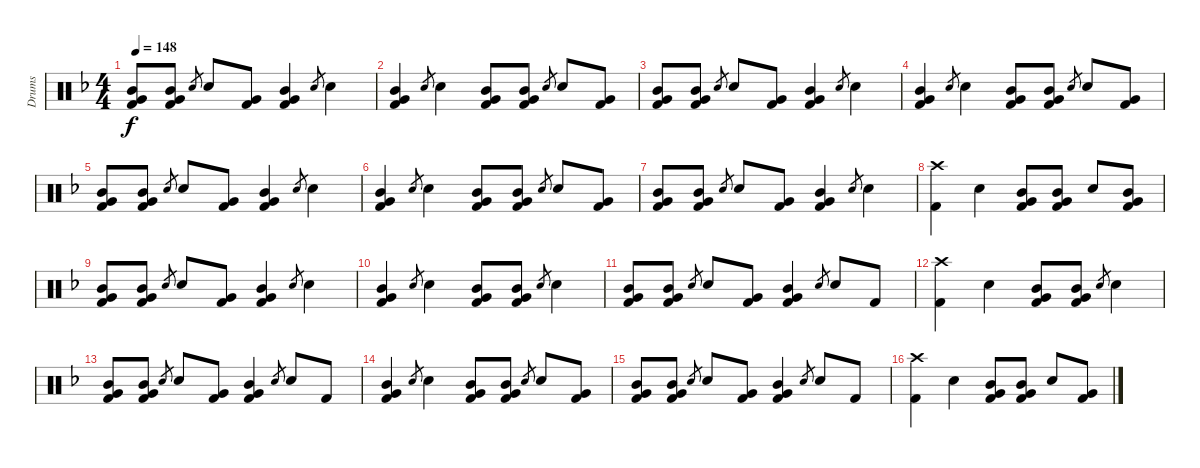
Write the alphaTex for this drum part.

\track ("Drums" "Drums") {instrument percussion}
\staff {score}
\articulation defaults
\ts (4 4)
\tempo 148
\clef neutral
\ks f
("Mid Tom (hit)" "Very Low Tom (hit)" "Kick (hit) 2").8{dy f} ("Mid Tom (hit)" "Very Low Tom (hit)" "Kick (hit) 2").8 "Snare (hit) 2".8{gr} "Snare (hit) 2".8 ("Very Low Tom (hit)" "Kick (hit) 2").8 ("Mid Tom (hit)" "Very Low Tom (hit)" "Kick (hit) 2").4 "Snare (hit) 2".8{gr} "Snare (hit) 2".4 |
("Mid Tom (hit)" "Very Low Tom (hit)" "Kick (hit) 2").4 "Snare (hit) 2".8{gr} "Snare (hit) 2".4 ("Mid Tom (hit)" "Very Low Tom (hit)" "Kick (hit) 2").8 ("Mid Tom (hit)" "Very Low Tom (hit)" "Kick (hit) 2").8 "Snare (hit) 2".8{gr} "Snare (hit) 2".8 ("Very Low Tom (hit)" "Kick (hit) 2").8 |
("Mid Tom (hit)" "Very Low Tom (hit)" "Kick (hit) 2").8 ("Mid Tom (hit)" "Very Low Tom (hit)" "Kick (hit) 2").8 "Snare (hit) 2".8{gr} "Snare (hit) 2".8 ("Very Low Tom (hit)" "Kick (hit) 2").8 ("Mid Tom (hit)" "Very Low Tom (hit)" "Kick (hit) 2").4 "Snare (hit) 2".8{gr} "Snare (hit) 2".4 |
("Mid Tom (hit)" "Very Low Tom (hit)" "Kick (hit) 2").4 "Snare (hit) 2".8{gr} "Snare (hit) 2".4 ("Mid Tom (hit)" "Very Low Tom (hit)" "Kick (hit) 2").8 ("Mid Tom (hit)" "Very Low Tom (hit)" "Kick (hit) 2").8 "Snare (hit) 2".8{gr} "Snare (hit) 2".8 ("Very Low Tom (hit)" "Kick (hit) 2").8 |
("Mid Tom (hit)" "Very Low Tom (hit)" "Kick (hit) 2").8 ("Mid Tom (hit)" "Very Low Tom (hit)" "Kick (hit) 2").8 "Snare (hit) 2".8{gr} "Snare (hit) 2".8 ("Very Low Tom (hit)" "Kick (hit) 2").8 ("Mid Tom (hit)" "Very Low Tom (hit)" "Kick (hit) 2").4 "Snare (hit) 2".8{gr} "Snare (hit) 2".4 |
("Mid Tom (hit)" "Very Low Tom (hit)" "Kick (hit) 2").4 "Snare (hit) 2".8{gr} "Snare (hit) 2".4 ("Mid Tom (hit)" "Very Low Tom (hit)" "Kick (hit) 2").8 ("Mid Tom (hit)" "Very Low Tom (hit)" "Kick (hit) 2").8 "Snare (hit) 2".8{gr} "Snare (hit) 2".8 ("Very Low Tom (hit)" "Kick (hit) 2").8 |
("Mid Tom (hit)" "Very Low Tom (hit)" "Kick (hit) 2").8 ("Mid Tom (hit)" "Very Low Tom (hit)" "Kick (hit) 2").8 "Snare (hit) 2".8{gr} "Snare (hit) 2".8 ("Very Low Tom (hit)" "Kick (hit) 2").8 ("Mid Tom (hit)" "Very Low Tom (hit)" "Kick (hit) 2").4 "Snare (hit) 2".8{gr} "Snare (hit) 2".4 |
("Crash high (hit)" "Kick (hit) 2").4 "Snare (hit) 2".4 ("Mid Tom (hit)" "Very Low Tom (hit)" "Kick (hit) 2").8 ("Mid Tom (hit)" "Very Low Tom (hit)" "Kick (hit) 2").8 "Snare (hit) 2".8 ("Mid Tom (hit)" "Very Low Tom (hit)" "Kick (hit) 2").8 |
("Mid Tom (hit)" "Very Low Tom (hit)" "Kick (hit) 2").8 ("Mid Tom (hit)" "Very Low Tom (hit)" "Kick (hit) 2").8 "Snare (hit) 2".8{gr} "Snare (hit) 2".8 ("Very Low Tom (hit)" "Kick (hit) 2").8 ("Mid Tom (hit)" "Very Low Tom (hit)" "Kick (hit) 2").4 "Snare (hit) 2".8{gr} "Snare (hit) 2".4 |
("Mid Tom (hit)" "Very Low Tom (hit)" "Kick (hit) 2").4 "Snare (hit) 2".8{gr} "Snare (hit) 2".4 ("Mid Tom (hit)" "Very Low Tom (hit)" "Kick (hit) 2").8 ("Mid Tom (hit)" "Very Low Tom (hit)" "Kick (hit) 2").8 "Snare (hit) 2".8{gr} "Snare (hit) 2".4 |
("Mid Tom (hit)" "Very Low Tom (hit)" "Kick (hit) 2").8 ("Mid Tom (hit)" "Very Low Tom (hit)" "Kick (hit) 2").8 "Snare (hit) 2".8{gr} "Snare (hit) 2".8 ("Very Low Tom (hit)" "Kick (hit) 2").8 ("Mid Tom (hit)" "Very Low Tom (hit)" "Kick (hit) 2").4 "Snare (hit) 2".8{gr} "Snare (hit) 2".8 "Kick (hit) 2".8 |
("Crash high (hit)" "Kick (hit) 2").4 "Snare (hit) 2".4 ("Mid Tom (hit)" "Very Low Tom (hit)" "Kick (hit) 2").8 ("Mid Tom (hit)" "Very Low Tom (hit)" "Kick (hit) 2").8 "Snare (hit) 2".8{gr} "Snare (hit) 2".4 |
("Mid Tom (hit)" "Very Low Tom (hit)" "Kick (hit) 2").8 ("Mid Tom (hit)" "Very Low Tom (hit)" "Kick (hit) 2").8 "Snare (hit) 2".8{gr} "Snare (hit) 2".8 ("Very Low Tom (hit)" "Kick (hit) 2").8 ("Mid Tom (hit)" "Very Low Tom (hit)" "Kick (hit) 2").4 "Snare (hit) 2".8{gr} "Snare (hit) 2".8 "Kick (hit) 2".8 |
("Mid Tom (hit)" "Very Low Tom (hit)" "Kick (hit) 2").4 "Snare (hit) 2".8{gr} "Snare (hit) 2".4 ("Mid Tom (hit)" "Very Low Tom (hit)" "Kick (hit) 2").8 ("Mid Tom (hit)" "Very Low Tom (hit)" "Kick (hit) 2").8 "Snare (hit) 2".8{gr} "Snare (hit) 2".8 ("Very Low Tom (hit)" "Kick (hit) 2").8 |
("Mid Tom (hit)" "Very Low Tom (hit)" "Kick (hit) 2").8 ("Mid Tom (hit)" "Very Low Tom (hit)" "Kick (hit) 2").8 "Snare (hit) 2".8{gr} "Snare (hit) 2".8 ("Very Low Tom (hit)" "Kick (hit) 2").8 ("Mid Tom (hit)" "Very Low Tom (hit)" "Kick (hit) 2").4 "Snare (hit) 2".8{gr} "Snare (hit) 2".8 "Kick (hit) 2".8 |
("Crash high (hit)" "Kick (hit) 2").4 "Snare (hit) 2".4 ("Mid Tom (hit)" "Very Low Tom (hit)" "Kick (hit) 2").8 ("Mid Tom (hit)" "Very Low Tom (hit)" "Kick (hit) 2").8 "Snare (hit) 2".8 ("Very Low Tom (hit)" "Kick (hit) 2").8
